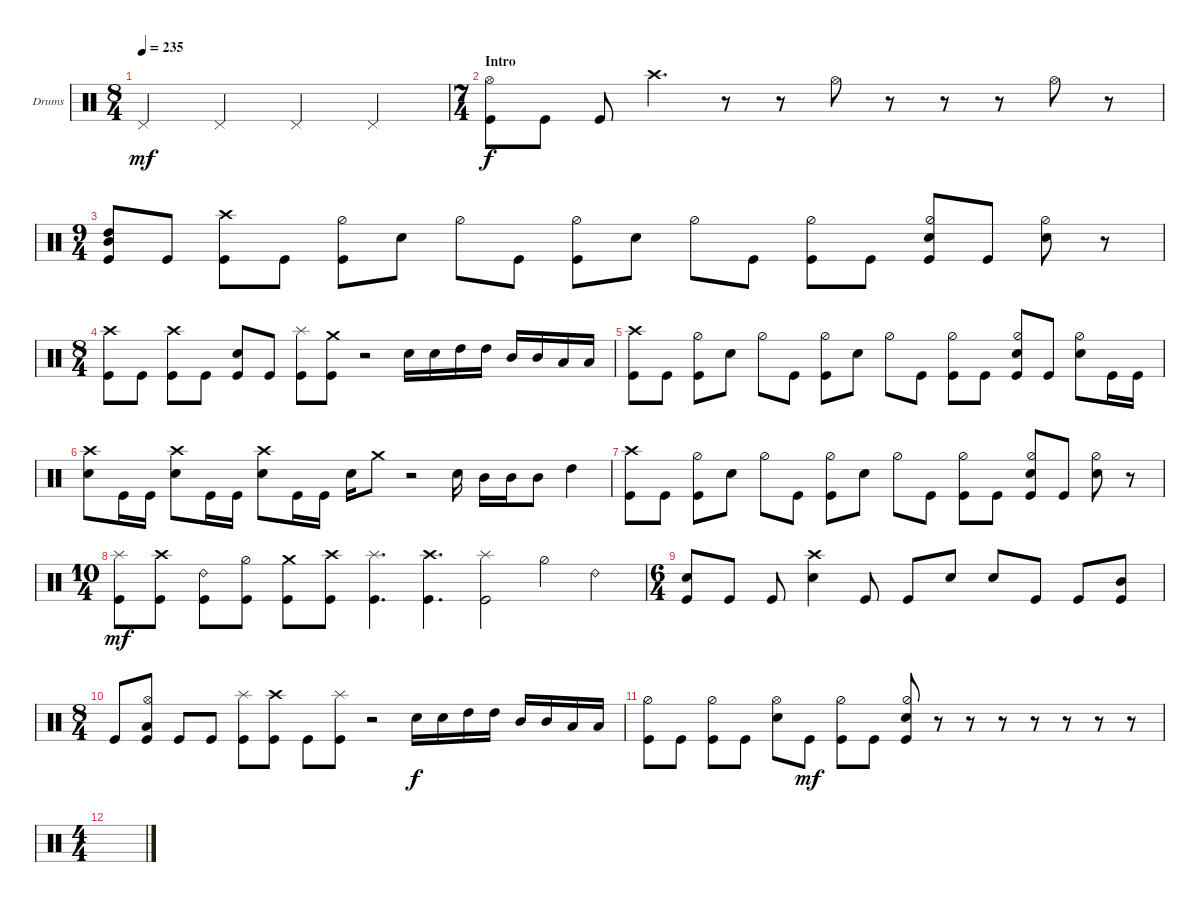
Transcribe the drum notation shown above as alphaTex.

\defaultSystemsLayout 4
\bracketExtendMode groupsimilarinstruments
\firstSystemTrackNameOrientation horizontal
\otherSystemsTrackNameOrientation horizontal
\track ("Samuel Santiago" "Drums") {instrument percussion}
\staff {score}
\articulation defaults
\ts (8 4)
\tempo 235
\clef neutral
\scale
0.391473
\ks c "Pedal Hi-Hat (hit)".2{dy mf} "Pedal Hi-Hat (hit)".2 "Pedal Hi-Hat (hit)".2 "Pedal Hi-Hat (hit)".2
|
\ts (7 4)
\section ("" "Intro")
\scale
0.217054 ("Kick (hit)" "Hi-Hat (open)").8{dy f} "Kick (hit)".8 "Kick (hit)".8 "Crash high (hit)".4{d} r.8 r.8 "Hi-Hat (open)".8 r.8 r.8 r.8 "Hi-Hat (open)".8 r.8 |
\ts (9 4)
\scale
0.391473 ("Kick (hit)" "Mid Tom (hit)" "High Tom (hit)").8 "Kick (hit)".8 ("Kick (hit)" "Crash high (hit)").8 "Kick (hit)".8 ("Kick (hit)" "Hi-Hat (half)").8 "Snare (hit) 2".8 "Hi-Hat (half)".8 "Kick (hit)".8 ("Kick (hit)" "Hi-Hat (half)").8 "Snare (hit) 2".8 "Hi-Hat (half)".8 "Kick (hit)".8 ("Kick (hit)" "Hi-Hat (half)").8 "Kick (hit)".8 ("Kick (hit)" "Hi-Hat (half)" "Snare (hit) 2").8 "Kick (hit)".8 ("Hi-Hat (half)" "Snare (hit) 2").8 r.8 |
\ts (8 4)
\scale
0.474178 ("Kick (hit)" "Crash high (hit)").8 "Kick (hit)".8 ("Kick (hit)" "Crash high (hit)").8 "Kick (hit)".8 ("Kick (hit)" "Snare (hit) 2").8 "Kick (hit)".8 ("Kick (hit)" "Splash (hit)").8 ("Kick (hit)" "Crash medium (hit)").8 r.2 "Snare (hit) 2".16 "Snare (hit) 2".16 "High Tom (hit)".16 "High Tom (hit)".16 "Mid Tom (hit)".16 "Mid Tom (hit)".16 "Low Tom (hit)".16 "Low Tom (hit)".16 |
\scale
0.262911 ("Kick (hit)" "Crash high (hit)").8 "Kick (hit)".8 ("Kick (hit)" "Hi-Hat (half)").8 "Snare (hit) 2".8 "Hi-Hat (half)".8 "Kick (hit)".8 ("Kick (hit)" "Hi-Hat (half)").8 "Snare (hit) 2".8 "Hi-Hat (half)".8 "Kick (hit)".8 ("Kick (hit)" "Hi-Hat (half)").8 "Kick (hit)".8 ("Kick (hit)" "Hi-Hat (half)" "Snare (hit) 2").8 "Kick (hit)".8 ("Hi-Hat (half)" "Snare (hit) 2").8 "Kick (hit)".16 "Kick (hit)".16 |
\scale
0.262911 ("Snare (hit) 2" "Crash high (hit)").8 "Kick (hit)".16 "Kick (hit)".16 ("Snare (hit) 2" "Crash high (hit)").8 "Kick (hit)".16 "Kick (hit)".16 ("Snare (hit) 2" "Crash high (hit)").8 "Kick (hit)".16 "Kick (hit)".16 "Snare (hit) 2".16 "Crash medium (hit)".8 r.2 "Snare (hit) 2".16 "Mid Tom (hit)".16 "Mid Tom (hit)".16 "Mid Tom (hit)".8 "High Tom (hit)".4 |
\scale
0.217054 ("Kick (hit)" "Crash high (hit)").8 "Kick (hit)".8 ("Kick (hit)" "Hi-Hat (half)").8 "Snare (hit) 2".8 "Hi-Hat (half)".8 "Kick (hit)".8 ("Kick (hit)" "Hi-Hat (half)").8 "Snare (hit) 2".8 "Hi-Hat (half)".8 "Kick (hit)".8 ("Kick (hit)" "Hi-Hat (half)").8 "Kick (hit)".8 ("Kick (hit)" "Hi-Hat (half)" "Snare (hit) 2").8 "Kick (hit)".8 ("Hi-Hat (half)" "Snare (hit) 2").8 r.8 |
\ts (10 4)
\scale
0.391473 ("Kick (hit)" "Splash (hit)").8{dy mf} ("Kick (hit)" "Crash high (hit)").8 ("Kick (hit)" "Ride (bell) 2").8 ("Kick (hit)" "Hi-Hat (half)").8 ("Kick (hit)" "Crash medium (hit)").8 ("Kick (hit)" "Crash high (hit)").8 ("Kick (hit)" "Splash (hit)").4{d} ("Kick (hit)" "Crash high (hit)").4{d} ("Kick (hit)" "Splash (hit)").2 "Hi-Hat (half)".4 "Ride (bell) 2".4 |
\ts (6 4)
\scale
0.391473 ("Kick (hit)" "Snare (hit) 2").8 "Kick (hit)".8 "Kick (hit)".8 ("Snare (hit) 2" "Crash high (hit)").4 "Kick (hit)".8 "Kick (hit)".8 "Snare (hit) 2".8 "Snare (hit) 2".8 "Kick (hit)".8 "Kick (hit)".8 ("Kick (hit)" "Mid Tom (hit)").8 |
\ts (8 4)
"Kick (hit)".8 ("Kick (hit)" "Low Tom (hit)" "Hi-Hat (open)").8 "Kick (hit)".8 "Kick (hit)".8 ("Kick (hit)" "Splash (hit)").8 ("Kick (hit)" "Crash high (hit)").8 "Kick (hit)".8 ("Kick (hit)" "Splash (hit)").8 r.2 "Snare (hit) 2".16{dy f} "Snare (hit) 2".16 "High Tom (hit)".16 "High Tom (hit)".16 "Mid Tom (hit)".16 "Mid Tom (hit)".16 "Low Tom (hit)".16 "Low Tom (hit)".16 |
("Kick (hit)" "Hi-Hat (half)").8 "Kick (hit)".8 ("Kick (hit)" "Hi-Hat (half)").8 "Kick (hit)".8 ("Snare (hit) 2" "Hi-Hat (open)").8 "Kick (hit)".8{dy mf} ("Kick (hit)" "Hi-Hat (half)").8 "Kick (hit)".8 ("Kick (hit)" "Hi-Hat (half)" "Snare (hit) 2").8 r.8 r.8 r.8 r.8 r.8 r.8 r.8 |
\ts (4 4)
